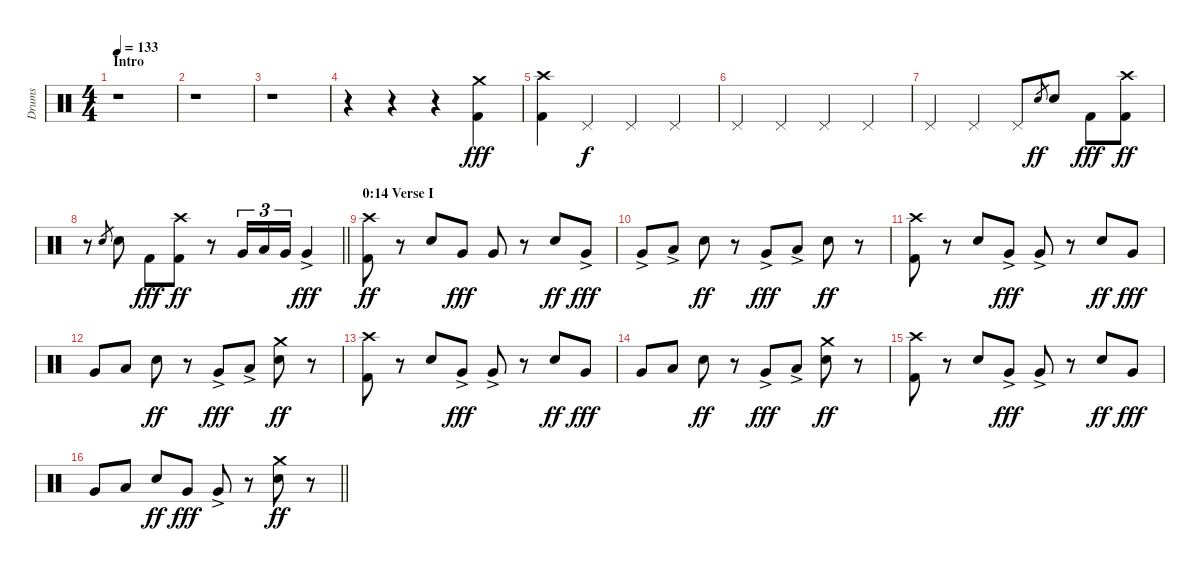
\track ("Drums" "Drums") {instrument percussion}
\staff {score}
\articulation defaults
\ts (4 4)
\section ("" "Intro")
\tempo 133
\clef neutral
\ks c
r.1{dy fff} |
r.1 |
r.1 |
r.4 r.4 r.4 ("Kick (hit) 2" "Crash medium (hit)").4 |
("Kick (hit) 2" "Crash high (hit)").4 "Pedal Hi-Hat (hit)".4{dy f} "Pedal Hi-Hat (hit)".4 "Pedal Hi-Hat (hit)".4 |
"Pedal Hi-Hat (hit)".4 "Pedal Hi-Hat (hit)".4 "Pedal Hi-Hat (hit)".4 "Pedal Hi-Hat (hit)".4 |
"Pedal Hi-Hat (hit)".4 "Pedal Hi-Hat (hit)".4 "Pedal Hi-Hat (hit)".8 "Electric Snare (hit)".8{gr dy ff} "Electric Snare (hit)".8 "Kick (hit) 2".8{dy fff} ("Kick (hit) 2" "Crash high (hit)").8{dy ff} |
\barLineRight lightlight
r.8 "Electric Snare (hit)".8{gr} "Electric Snare (hit)".8 "Kick (hit) 2".8{dy fff} ("Kick (hit) 2" "Crash high (hit)").8{dy ff} r.8 "Very Low Tom (hit)".16{tu (3 2)} "Low Tom (hit)".16{tu (3 2)} "Very Low Tom (hit)".16{tu (3 2)} "Very Low Tom (hit)"{ac}.4{dy fff} |
\section ("" "0:14 Verse I")
("Kick (hit) 2" "Crash high (hit)").8{dy ff} r.8 "Electric Snare (hit)".8 "Very Low Tom (hit)".8{dy fff} "Very Low Tom (hit)".8 r.8 "Electric Snare (hit)".8{dy ff} "Very Low Tom (hit)"{ac}.8{dy fff} |
"Very Low Tom (hit)"{ac}.8 "Low Tom (hit)"{ac}.8 "Electric Snare (hit)".8{dy ff} r.8 "Very Low Tom (hit)"{ac}.8{dy fff} "Low Tom (hit)"{ac}.8 "Electric Snare (hit)".8{dy ff} r.8 |
("Kick (hit) 2" "Crash high (hit)").8 r.8 "Electric Snare (hit)".8 "Very Low Tom (hit)"{ac}.8{dy fff} "Very Low Tom (hit)"{ac}.8 r.8 "Electric Snare (hit)".8{dy ff} "Very Low Tom (hit)".8{dy fff} |
"Very Low Tom (hit)".8 "Low Tom (hit)".8 "Electric Snare (hit)".8{dy ff} r.8 "Very Low Tom (hit)"{ac}.8{dy fff} "Low Tom (hit)"{ac}.8 ("Electric Snare (hit)" "Crash medium (hit)").8{dy ff} r.8 |
("Kick (hit) 2" "Crash high (hit)").8 r.8 "Electric Snare (hit)".8 "Very Low Tom (hit)"{ac}.8{dy fff} "Very Low Tom (hit)"{ac}.8 r.8 "Electric Snare (hit)".8{dy ff} "Very Low Tom (hit)".8{dy fff} |
"Very Low Tom (hit)".8 "Low Tom (hit)".8 "Electric Snare (hit)".8{dy ff} r.8 "Very Low Tom (hit)"{ac}.8{dy fff} "Low Tom (hit)"{ac}.8 ("Electric Snare (hit)" "Crash medium (hit)").8{dy ff} r.8 |
("Kick (hit) 2" "Crash high (hit)").8 r.8 "Electric Snare (hit)".8 "Very Low Tom (hit)"{ac}.8{dy fff} "Very Low Tom (hit)"{ac}.8 r.8 "Electric Snare (hit)".8{dy ff} "Very Low Tom (hit)".8{dy fff} |
\barLineRight lightlight "Very Low Tom (hit)".8 "Low Tom (hit)".8 "Electric Snare (hit)".8{dy ff} "Very Low Tom (hit)".8{dy fff} "Very Low Tom (hit)"{ac}.8
r.8 ("Electric Snare (hit)" "Crash medium (hit)").8{dy ff} r.8
